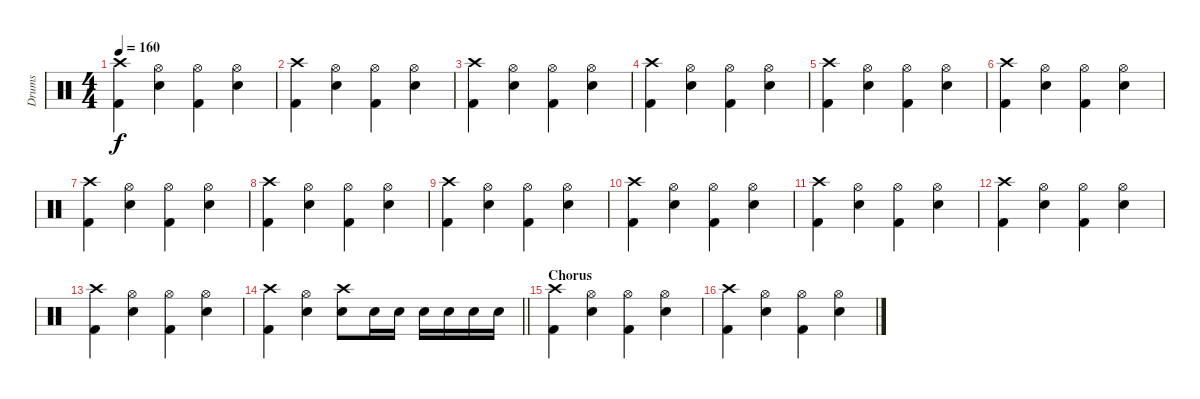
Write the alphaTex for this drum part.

\track ("Drums" "Drums") {instrument percussion}
\staff {score}
\articulation defaults
\ts (4 4)
\tempo 160
\clef neutral
\ks c
("Crash high (hit)" "Kick (hit) 2").4{dy f} ("Hi-Hat (open)" "Electric Snare (hit)").4 ("Hi-Hat (open)" "Kick (hit) 2").4 ("Hi-Hat (open)" "Electric Snare (hit)").4 |
("Crash high (hit)" "Kick (hit) 2").4 ("Hi-Hat (open)" "Electric Snare (hit)").4 ("Hi-Hat (open)" "Kick (hit) 2").4 ("Hi-Hat (open)" "Electric Snare (hit)").4 |
("Crash high (hit)" "Kick (hit) 2").4 ("Hi-Hat (open)" "Electric Snare (hit)").4 ("Hi-Hat (open)" "Kick (hit) 2").4 ("Hi-Hat (open)" "Electric Snare (hit)").4 |
("Crash high (hit)" "Kick (hit) 2").4 ("Hi-Hat (open)" "Electric Snare (hit)").4 ("Hi-Hat (open)" "Kick (hit) 2").4 ("Hi-Hat (open)" "Electric Snare (hit)").4 |
("Crash high (hit)" "Kick (hit) 2").4 ("Hi-Hat (open)" "Electric Snare (hit)").4 ("Hi-Hat (open)" "Kick (hit) 2").4 ("Hi-Hat (open)" "Electric Snare (hit)").4 |
("Crash high (hit)" "Kick (hit) 2").4 ("Hi-Hat (open)" "Electric Snare (hit)").4 ("Hi-Hat (open)" "Kick (hit) 2").4 ("Hi-Hat (open)" "Electric Snare (hit)").4 |
("Crash high (hit)" "Kick (hit) 2").4 ("Hi-Hat (open)" "Electric Snare (hit)").4 ("Hi-Hat (open)" "Kick (hit) 2").4 ("Hi-Hat (open)" "Electric Snare (hit)").4 |
("Crash high (hit)" "Kick (hit) 2").4 ("Hi-Hat (open)" "Electric Snare (hit)").4 ("Hi-Hat (open)" "Kick (hit) 2").4 ("Hi-Hat (open)" "Electric Snare (hit)").4 |
("Crash high (hit)" "Kick (hit) 2").4 ("Hi-Hat (open)" "Electric Snare (hit)").4 ("Hi-Hat (open)" "Kick (hit) 2").4 ("Hi-Hat (open)" "Electric Snare (hit)").4 |
("Crash high (hit)" "Kick (hit) 2").4 ("Hi-Hat (open)" "Electric Snare (hit)").4 ("Hi-Hat (open)" "Kick (hit) 2").4 ("Hi-Hat (open)" "Electric Snare (hit)").4 |
("Crash high (hit)" "Kick (hit) 2").4 ("Hi-Hat (open)" "Electric Snare (hit)").4 ("Hi-Hat (open)" "Kick (hit) 2").4 ("Hi-Hat (open)" "Electric Snare (hit)").4 |
("Crash high (hit)" "Kick (hit) 2").4 ("Hi-Hat (open)" "Electric Snare (hit)").4 ("Hi-Hat (open)" "Kick (hit) 2").4 ("Hi-Hat (open)" "Electric Snare (hit)").4 |
("Crash high (hit)" "Kick (hit) 2").4 ("Hi-Hat (open)" "Electric Snare (hit)").4 ("Hi-Hat (open)" "Kick (hit) 2").4 ("Hi-Hat (open)" "Electric Snare (hit)").4 |
\barLineRight lightlight
("Crash high (hit)" "Kick (hit) 2").4 ("Hi-Hat (open)" "Electric Snare (hit)").4 ("Crash high (hit)" "Electric Snare (hit)").8 "Electric Snare (hit)".16 "Electric Snare (hit)".16 "Electric Snare (hit)".16 "Electric Snare (hit)".16 "Electric Snare (hit)".16 "Electric Snare (hit)".16 |
\section ("" "Chorus")
("Crash high (hit)" "Kick (hit) 2").4 ("Hi-Hat (open)" "Electric Snare (hit)").4 ("Hi-Hat (open)" "Kick (hit) 2").4 ("Hi-Hat (open)" "Electric Snare (hit)").4 |
("Crash high (hit)" "Kick (hit) 2").4 ("Hi-Hat (open)" "Electric Snare (hit)").4 ("Hi-Hat (open)" "Kick (hit) 2").4 ("Hi-Hat (open)" "Electric Snare (hit)").4
